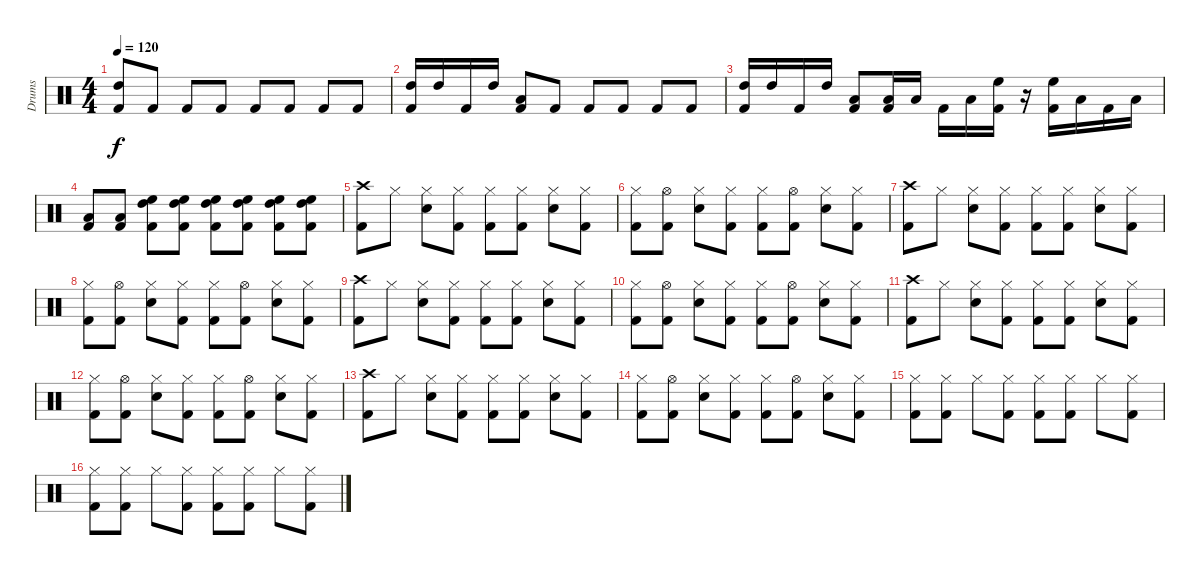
\track ("Drums" "Drums") {instrument percussion}
\staff {score}
\articulation defaults
\ts (4 4)
\tempo 120
\clef neutral
\ks c
("High Tom (hit)" "Kick (hit) 2").8{dy f} "Kick (hit) 2".8 "Kick (hit) 2".8 "Kick (hit) 2".8 "Kick (hit) 2".8 "Kick (hit) 2".8 "Kick (hit) 2".8 "Kick (hit) 2".8 |
("High Tom (hit)" "Kick (hit) 2").16 "High Tom (hit)".16 "Kick (hit) 2".16 "High Tom (hit)".16 ("Low Tom (hit)" "Kick (hit) 2").8 "Kick (hit) 2".8 "Kick (hit) 2".8 "Kick (hit) 2".8 "Kick (hit) 2".8 "Kick (hit) 2".8 |
("High Tom (hit)" "Kick (hit) 2").16 "High Tom (hit)".16 "Kick (hit) 2".16 "High Tom (hit)".16 ("Low Tom (hit)" "Kick (hit) 2").8 ("Low Tom (hit)" "Kick (hit) 2").16 "Low Tom (hit)".16 "Kick (hit) 2".16 "Low Tom (hit)".16 ("High Floor Tom (hit)" "Kick (hit) 2").16 r.16 ("High Floor Tom (hit)" "Kick (hit) 2").16 "Low Tom (hit)".16 "Kick (hit) 2".16 "Low Tom (hit)".16 |
("Low Tom (hit)" "Kick (hit) 2").8 ("Low Tom (hit)" "Kick (hit) 2").8 ("High Floor Tom (hit)" "High Tom (hit)" "Kick (hit) 2").8 ("High Floor Tom (hit)" "High Tom (hit)" "Kick (hit) 2").8 ("High Floor Tom (hit)" "High Tom (hit)" "Kick (hit) 2").8 ("High Floor Tom (hit)" "High Tom (hit)" "Kick (hit) 2").8 ("High Floor Tom (hit)" "High Tom (hit)" "Kick (hit) 2").8 ("High Floor Tom (hit)" "High Tom (hit)" "Kick (hit) 2").8 |
("Crash high (hit)" "Kick (hit) 2").8 "Hi-Hat (closed)".8 ("Hi-Hat (closed)" "Snare (hit) 2").8 ("Hi-Hat (closed)" "Kick (hit) 2").8 ("Hi-Hat (closed)" "Kick (hit) 2").8 ("Hi-Hat (closed)" "Kick (hit) 2").8 ("Hi-Hat (closed)" "Snare (hit) 2").8 ("Hi-Hat (closed)" "Kick (hit) 2").8 |
("Hi-Hat (closed)" "Kick (hit) 2").8 ("Hi-Hat (open)" "Kick (hit) 2").8 ("Hi-Hat (closed)" "Snare (hit) 2").8 ("Hi-Hat (closed)" "Kick (hit) 2").8 ("Hi-Hat (closed)" "Kick (hit) 2").8 ("Hi-Hat (open)" "Kick (hit) 2").8 ("Hi-Hat (closed)" "Snare (hit) 2").8 ("Hi-Hat (closed)" "Kick (hit) 2").8 |
("Crash high (hit)" "Kick (hit) 2").8 "Hi-Hat (closed)".8 ("Hi-Hat (closed)" "Snare (hit) 2").8 ("Hi-Hat (closed)" "Kick (hit) 2").8 ("Hi-Hat (closed)" "Kick (hit) 2").8 ("Hi-Hat (closed)" "Kick (hit) 2").8 ("Hi-Hat (closed)" "Snare (hit) 2").8 ("Hi-Hat (closed)" "Kick (hit) 2").8 |
("Hi-Hat (closed)" "Kick (hit) 2").8 ("Hi-Hat (open)" "Kick (hit) 2").8 ("Hi-Hat (closed)" "Snare (hit) 2").8 ("Hi-Hat (closed)" "Kick (hit) 2").8 ("Hi-Hat (closed)" "Kick (hit) 2").8 ("Hi-Hat (open)" "Kick (hit) 2").8 ("Hi-Hat (closed)" "Snare (hit) 2").8 ("Hi-Hat (closed)" "Kick (hit) 2").8 |
("Crash high (hit)" "Kick (hit) 2").8 "Hi-Hat (closed)".8 ("Hi-Hat (closed)" "Snare (hit) 2").8 ("Hi-Hat (closed)" "Kick (hit) 2").8 ("Hi-Hat (closed)" "Kick (hit) 2").8 ("Hi-Hat (closed)" "Kick (hit) 2").8 ("Hi-Hat (closed)" "Snare (hit) 2").8 ("Hi-Hat (closed)" "Kick (hit) 2").8 |
("Hi-Hat (closed)" "Kick (hit) 2").8 ("Hi-Hat (open)" "Kick (hit) 2").8 ("Hi-Hat (closed)" "Snare (hit) 2").8 ("Hi-Hat (closed)" "Kick (hit) 2").8 ("Hi-Hat (closed)" "Kick (hit) 2").8 ("Hi-Hat (open)" "Kick (hit) 2").8 ("Hi-Hat (closed)" "Snare (hit) 2").8 ("Hi-Hat (closed)" "Kick (hit) 2").8 |
("Crash high (hit)" "Kick (hit) 2").8 "Hi-Hat (closed)".8 ("Hi-Hat (closed)" "Snare (hit) 2").8 ("Hi-Hat (closed)" "Kick (hit) 2").8 ("Hi-Hat (closed)" "Kick (hit) 2").8 ("Hi-Hat (closed)" "Kick (hit) 2").8 ("Hi-Hat (closed)" "Snare (hit) 2").8 ("Hi-Hat (closed)" "Kick (hit) 2").8 |
("Hi-Hat (closed)" "Kick (hit) 2").8 ("Hi-Hat (open)" "Kick (hit) 2").8 ("Hi-Hat (closed)" "Snare (hit) 2").8 ("Hi-Hat (closed)" "Kick (hit) 2").8 ("Hi-Hat (closed)" "Kick (hit) 2").8 ("Hi-Hat (open)" "Kick (hit) 2").8 ("Hi-Hat (closed)" "Snare (hit) 2").8 ("Hi-Hat (closed)" "Kick (hit) 2").8 |
("Crash high (hit)" "Kick (hit) 2").8 "Hi-Hat (closed)".8 ("Hi-Hat (closed)" "Snare (hit) 2").8 ("Hi-Hat (closed)" "Kick (hit) 2").8 ("Hi-Hat (closed)" "Kick (hit) 2").8 ("Hi-Hat (closed)" "Kick (hit) 2").8 ("Hi-Hat (closed)" "Snare (hit) 2").8 ("Hi-Hat (closed)" "Kick (hit) 2").8 |
("Hi-Hat (closed)" "Kick (hit) 2").8 ("Hi-Hat (open)" "Kick (hit) 2").8 ("Hi-Hat (closed)" "Snare (hit) 2").8 ("Hi-Hat (closed)" "Kick (hit) 2").8 ("Hi-Hat (closed)" "Kick (hit) 2").8 ("Hi-Hat (open)" "Kick (hit) 2").8 ("Hi-Hat (closed)" "Snare (hit) 2").8 ("Hi-Hat (closed)" "Kick (hit) 2").8 |
("Hi-Hat (closed)" "Kick (hit) 2").8 ("Hi-Hat (closed)" "Kick (hit) 2").8 "Hi-Hat (closed)".8 ("Hi-Hat (closed)" "Kick (hit) 2").8 ("Hi-Hat (closed)" "Kick (hit) 2").8 ("Hi-Hat (closed)" "Kick (hit) 2").8 "Hi-Hat (closed)".8 ("Hi-Hat (closed)" "Kick (hit) 2").8 |
("Hi-Hat (closed)" "Kick (hit) 2").8 ("Hi-Hat (closed)" "Kick (hit) 2").8 "Hi-Hat (closed)".8 ("Hi-Hat (closed)" "Kick (hit) 2").8 ("Hi-Hat (closed)" "Kick (hit) 2").8 ("Hi-Hat (closed)" "Kick (hit) 2").8 "Hi-Hat (closed)".8 ("Hi-Hat (closed)" "Kick (hit) 2").8
